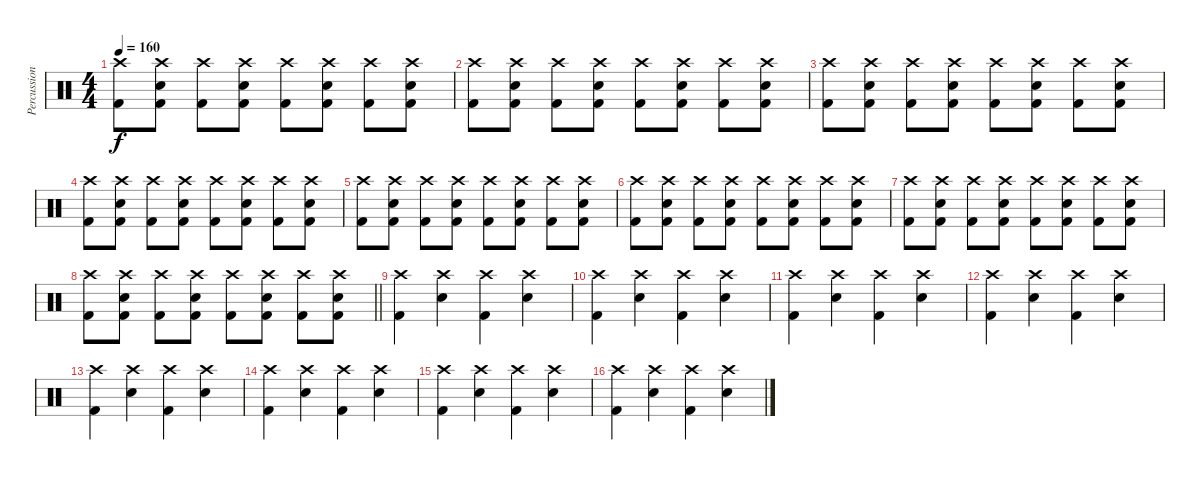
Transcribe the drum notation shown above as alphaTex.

\track ("Percussion" "Percussion") {instrument percussion}
\staff {score}
\articulation defaults
\ts (4 4)
\tempo 160
\clef neutral
\ks c
("Crash high (hit)" "Kick (hit) 2").8{dy f} ("Crash high (hit)" "Snare (hit) 2" "Kick (hit) 2").8 ("Crash high (hit)" "Kick (hit) 2").8 ("Crash high (hit)" "Snare (hit) 2" "Kick (hit) 2").8 ("Crash high (hit)" "Kick (hit) 2").8 ("Crash high (hit)" "Snare (hit) 2" "Kick (hit) 2").8 ("Crash high (hit)" "Kick (hit) 2").8 ("Crash high (hit)" "Snare (hit) 2" "Kick (hit) 2").8 |
("Crash high (hit)" "Kick (hit) 2").8 ("Crash high (hit)" "Snare (hit) 2" "Kick (hit) 2").8 ("Crash high (hit)" "Kick (hit) 2").8 ("Crash high (hit)" "Snare (hit) 2" "Kick (hit) 2").8 ("Crash high (hit)" "Kick (hit) 2").8 ("Crash high (hit)" "Snare (hit) 2" "Kick (hit) 2").8 ("Crash high (hit)" "Kick (hit) 2").8 ("Crash high (hit)" "Snare (hit) 2" "Kick (hit) 2").8 |
("Crash high (hit)" "Kick (hit) 2").8 ("Crash high (hit)" "Snare (hit) 2" "Kick (hit) 2").8 ("Crash high (hit)" "Kick (hit) 2").8 ("Crash high (hit)" "Snare (hit) 2" "Kick (hit) 2").8 ("Crash high (hit)" "Kick (hit) 2").8 ("Crash high (hit)" "Snare (hit) 2" "Kick (hit) 2").8 ("Crash high (hit)" "Kick (hit) 2").8 ("Crash high (hit)" "Snare (hit) 2" "Kick (hit) 2").8 |
("Crash high (hit)" "Kick (hit) 2").8 ("Crash high (hit)" "Snare (hit) 2" "Kick (hit) 2").8 ("Crash high (hit)" "Kick (hit) 2").8 ("Crash high (hit)" "Snare (hit) 2" "Kick (hit) 2").8 ("Crash high (hit)" "Kick (hit) 2").8 ("Crash high (hit)" "Snare (hit) 2" "Kick (hit) 2").8 ("Crash high (hit)" "Kick (hit) 2").8 ("Crash high (hit)" "Snare (hit) 2" "Kick (hit) 2").8 |
("Crash high (hit)" "Kick (hit) 2").8 ("Crash high (hit)" "Snare (hit) 2" "Kick (hit) 2").8 ("Crash high (hit)" "Kick (hit) 2").8 ("Crash high (hit)" "Snare (hit) 2" "Kick (hit) 2").8 ("Crash high (hit)" "Kick (hit) 2").8 ("Crash high (hit)" "Snare (hit) 2" "Kick (hit) 2").8 ("Crash high (hit)" "Kick (hit) 2").8 ("Crash high (hit)" "Snare (hit) 2" "Kick (hit) 2").8 |
("Crash high (hit)" "Kick (hit) 2").8 ("Crash high (hit)" "Snare (hit) 2" "Kick (hit) 2").8 ("Crash high (hit)" "Kick (hit) 2").8 ("Crash high (hit)" "Snare (hit) 2" "Kick (hit) 2").8 ("Crash high (hit)" "Kick (hit) 2").8 ("Crash high (hit)" "Snare (hit) 2" "Kick (hit) 2").8 ("Crash high (hit)" "Kick (hit) 2").8 ("Crash high (hit)" "Snare (hit) 2" "Kick (hit) 2").8 |
("Crash high (hit)" "Kick (hit) 2").8 ("Crash high (hit)" "Snare (hit) 2" "Kick (hit) 2").8 ("Crash high (hit)" "Kick (hit) 2").8 ("Crash high (hit)" "Snare (hit) 2" "Kick (hit) 2").8 ("Crash high (hit)" "Kick (hit) 2").8 ("Crash high (hit)" "Snare (hit) 2" "Kick (hit) 2").8 ("Crash high (hit)" "Kick (hit) 2").8 ("Crash high (hit)" "Snare (hit) 2" "Kick (hit) 2").8 |
\barLineRight lightlight
("Crash high (hit)" "Kick (hit) 2").8 ("Crash high (hit)" "Snare (hit) 2" "Kick (hit) 2").8 ("Crash high (hit)" "Kick (hit) 2").8 ("Crash high (hit)" "Snare (hit) 2" "Kick (hit) 2").8 ("Crash high (hit)" "Kick (hit) 2").8 ("Crash high (hit)" "Snare (hit) 2" "Kick (hit) 2").8 ("Crash high (hit)" "Kick (hit) 2").8 ("Crash high (hit)" "Snare (hit) 2" "Kick (hit) 2").8 |
("Crash high (hit)" "Kick (hit) 2").4 ("Crash high (hit)" "Snare (hit) 2").4 ("Crash high (hit)" "Kick (hit) 2").4 ("Crash high (hit)" "Snare (hit) 2").4 |
("Crash high (hit)" "Kick (hit) 2").4 ("Crash high (hit)" "Snare (hit) 2").4 ("Crash high (hit)" "Kick (hit) 2").4 ("Crash high (hit)" "Snare (hit) 2").4 |
("Crash high (hit)" "Kick (hit) 2").4 ("Crash high (hit)" "Snare (hit) 2").4 ("Crash high (hit)" "Kick (hit) 2").4 ("Crash high (hit)" "Snare (hit) 2").4 |
("Crash high (hit)" "Kick (hit) 2").4 ("Crash high (hit)" "Snare (hit) 2").4 ("Crash high (hit)" "Kick (hit) 2").4 ("Crash high (hit)" "Snare (hit) 2").4 |
("Crash high (hit)" "Kick (hit) 2").4 ("Crash high (hit)" "Snare (hit) 2").4 ("Crash high (hit)" "Kick (hit) 2").4 ("Crash high (hit)" "Snare (hit) 2").4 |
("Crash high (hit)" "Kick (hit) 2").4 ("Crash high (hit)" "Snare (hit) 2").4 ("Crash high (hit)" "Kick (hit) 2").4 ("Crash high (hit)" "Snare (hit) 2").4 |
("Crash high (hit)" "Kick (hit) 2").4 ("Crash high (hit)" "Snare (hit) 2").4 ("Crash high (hit)" "Kick (hit) 2").4 ("Crash high (hit)" "Snare (hit) 2").4 |
("Crash high (hit)" "Kick (hit) 2").4 ("Crash high (hit)" "Snare (hit) 2").4 ("Crash high (hit)" "Kick (hit) 2").4 ("Crash high (hit)" "Snare (hit) 2").4
